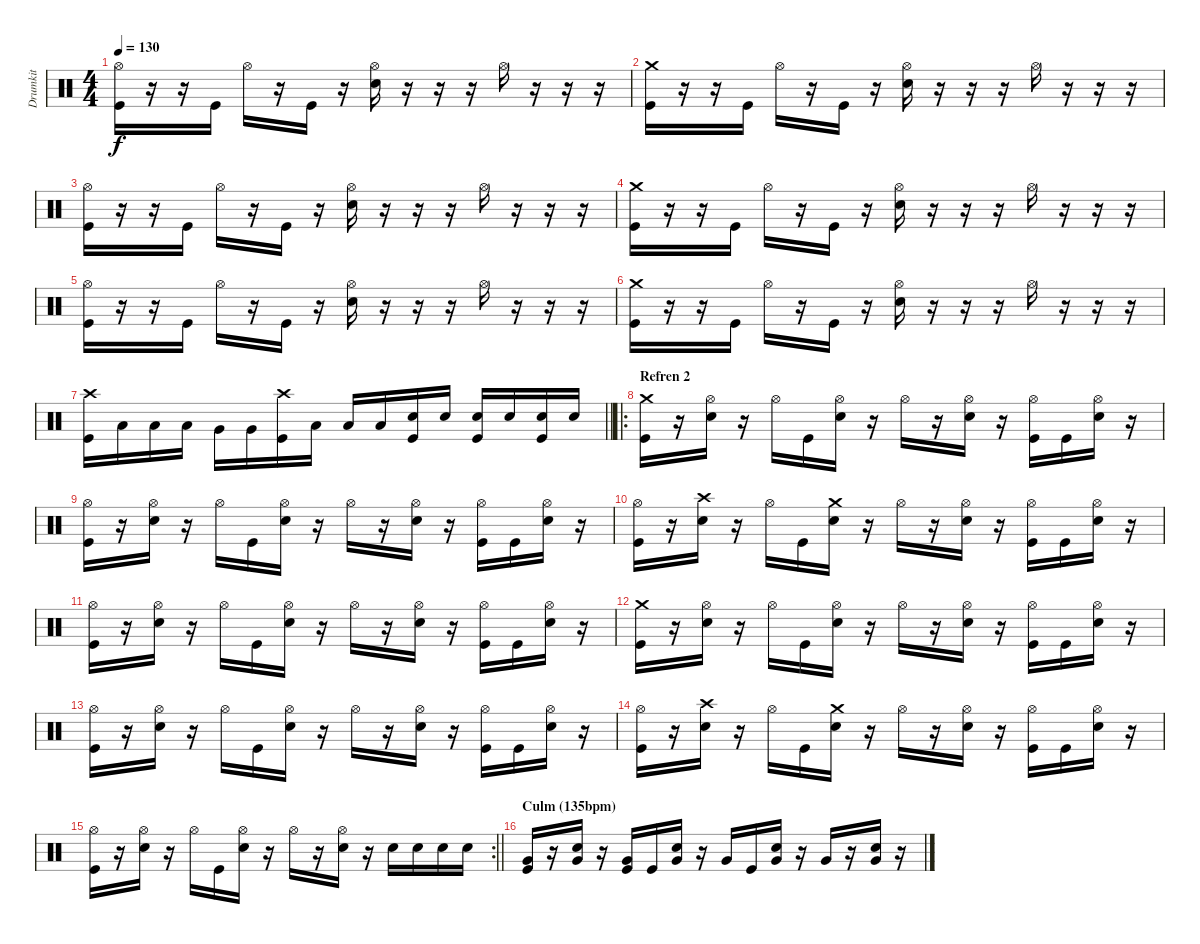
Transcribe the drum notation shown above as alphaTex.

\track ("Drumkit" "Drumkit") {instrument percussion}
\staff {score}
\articulation defaults
\ts (4 4)
\tempo 130
\clef neutral
\ks c
("Kick (hit)" "Hi-Hat (open)").16{dy f} r.16 r.16 "Kick (hit)".16 "Hi-Hat (open)".16 r.16 "Kick (hit)".16 r.16 ("Hi-Hat (open)" "Snare (hit) 2").16 r.16 r.16 r.16 "Hi-Hat (open)".16 r.16 r.16 r.16 |
("Crash medium (hit)" "Kick (hit)").16 r.16 r.16 "Kick (hit)".16 "Hi-Hat (open)".16 r.16 "Kick (hit)".16 r.16 ("Hi-Hat (open)" "Snare (hit) 2").16 r.16 r.16 r.16 "Hi-Hat (open)".16 r.16 r.16 r.16 |
("Kick (hit)" "Hi-Hat (open)").16 r.16 r.16 "Kick (hit)".16 "Hi-Hat (open)".16 r.16 "Kick (hit)".16 r.16 ("Hi-Hat (open)" "Snare (hit) 2").16 r.16 r.16 r.16 "Hi-Hat (open)".16 r.16 r.16 r.16 |
("Crash medium (hit)" "Kick (hit)").16 r.16 r.16 "Kick (hit)".16 "Hi-Hat (open)".16 r.16 "Kick (hit)".16 r.16 ("Hi-Hat (open)" "Snare (hit) 2").16 r.16 r.16 r.16 "Hi-Hat (open)".16 r.16 r.16 r.16 |
("Kick (hit)" "Hi-Hat (open)").16 r.16 r.16 "Kick (hit)".16 "Hi-Hat (open)".16 r.16 "Kick (hit)".16 r.16 ("Hi-Hat (open)" "Snare (hit) 2").16 r.16 r.16 r.16 "Hi-Hat (open)".16 r.16 r.16 r.16 |
("Crash medium (hit)" "Kick (hit)").16 r.16 r.16 "Kick (hit)".16 "Hi-Hat (open)".16 r.16 "Kick (hit)".16 r.16 ("Hi-Hat (open)" "Snare (hit) 2").16 r.16 r.16 r.16 "Hi-Hat (open)".16 r.16 r.16 r.16 |
\barLineRight lightlight
("Kick (hit)" "Crash high (hit)").16 "Low Tom (hit)".16 "Low Tom (hit)".16 "Low Tom (hit)".16 "Very Low Tom (hit)".16 "Very Low Tom (hit)".16 ("Kick (hit)" "Crash high (hit)").16 "Low Tom (hit)".16 "Low Tom (hit)".16 "Low Tom (hit)".16 ("Kick (hit)" "Snare (hit) 2").16 "Snare (hit) 2".16 ("Kick (hit)" "Snare (hit) 2").16 "Snare (hit) 2".16 ("Kick (hit)" "Snare (hit) 2").16 "Snare (hit) 2".16 |
\ro
\section ("" "Refren 2")
("Kick (hit)" "Crash medium (hit)").16 r.16 ("Hi-Hat (open)" "Snare (hit) 2").16 r.16 "Hi-Hat (open)".16 "Kick (hit)".16 ("Hi-Hat (open)" "Snare (hit) 2").16 r.16 "Hi-Hat (open)".16 r.16 ("Hi-Hat (open)" "Snare (hit) 2").16 r.16 ("Hi-Hat (open)" "Kick (hit)").16 "Kick (hit)".16 ("Hi-Hat (open)" "Snare (hit) 2").16 r.16 |
("Hi-Hat (open)" "Kick (hit)").16 r.16 ("Hi-Hat (open)" "Snare (hit) 2").16 r.16 "Hi-Hat (open)".16 "Kick (hit)".16 ("Hi-Hat (open)" "Snare (hit) 2").16 r.16 "Hi-Hat (open)".16 r.16 ("Snare (hit) 2" "Hi-Hat (open)").16 r.16 ("Hi-Hat (open)" "Kick (hit)").16 "Kick (hit)".16 ("Hi-Hat (open)" "Snare (hit) 2").16 r.16 |
("Hi-Hat (open)" "Kick (hit)").16 r.16 ("Snare (hit) 2" "Crash high (hit)").16 r.16 "Hi-Hat (open)".16 "Kick (hit)".16 ("Snare (hit) 2" "Crash medium (hit)").16 r.16 "Hi-Hat (open)".16 r.16 ("Hi-Hat (open)" "Snare (hit) 2").16 r.16 ("Hi-Hat (open)" "Kick (hit)").16 "Kick (hit)".16 ("Hi-Hat (open)" "Snare (hit) 2").16 r.16 |
("Hi-Hat (open)" "Kick (hit)").16 r.16 ("Hi-Hat (open)" "Snare (hit) 2").16 r.16 "Hi-Hat (open)".16 "Kick (hit)".16 ("Hi-Hat (open)" "Snare (hit) 2").16 r.16 "Hi-Hat (open)".16 r.16 ("Hi-Hat (open)" "Snare (hit) 2").16 r.16 ("Hi-Hat (open)" "Kick (hit)").16 "Kick (hit)".16 ("Hi-Hat (open)" "Snare (hit) 2").16 r.16 |
("Kick (hit)" "Crash medium (hit)").16 r.16 ("Hi-Hat (open)" "Snare (hit) 2").16 r.16 "Hi-Hat (open)".16 "Kick (hit)".16 ("Hi-Hat (open)" "Snare (hit) 2").16 r.16 "Hi-Hat (open)".16 r.16 ("Hi-Hat (open)" "Snare (hit) 2").16 r.16 ("Hi-Hat (open)" "Kick (hit)").16 "Kick (hit)".16 ("Hi-Hat (open)" "Snare (hit) 2").16 r.16 |
("Hi-Hat (open)" "Kick (hit)").16 r.16 ("Hi-Hat (open)" "Snare (hit) 2").16 r.16 "Hi-Hat (open)".16 "Kick (hit)".16 ("Hi-Hat (open)" "Snare (hit) 2").16 r.16 "Hi-Hat (open)".16 r.16 ("Snare (hit) 2" "Hi-Hat (open)").16 r.16 ("Hi-Hat (open)" "Kick (hit)").16 "Kick (hit)".16 ("Hi-Hat (open)" "Snare (hit) 2").16 r.16 |
("Hi-Hat (open)" "Kick (hit)").16 r.16 ("Snare (hit) 2" "Crash high (hit)").16 r.16 "Hi-Hat (open)".16 "Kick (hit)".16 ("Snare (hit) 2" "Crash medium (hit)").16 r.16 "Hi-Hat (open)".16 r.16 ("Hi-Hat (open)" "Snare (hit) 2").16 r.16 ("Hi-Hat (open)" "Kick (hit)").16 "Kick (hit)".16 ("Hi-Hat (open)" "Snare (hit) 2").16 r.16 |
\rc 2
\barLineRight lightlight
("Hi-Hat (open)" "Kick (hit)").16 r.16 ("Hi-Hat (open)" "Snare (hit) 2").16 r.16 "Hi-Hat (open)".16 "Kick (hit)".16 ("Hi-Hat (open)" "Snare (hit) 2").16 r.16 "Hi-Hat (open)".16 r.16 ("Hi-Hat (open)" "Snare (hit) 2").16 r.16 "Snare (hit) 2".16 "Snare (hit) 2".16 "Snare (hit) 2".16 "Snare (hit) 2".16 |
\section ("" "Culm (135bpm)")
("Kick (hit)" "Very Low Tom (hit)").16 r.16 ("Snare (hit) 2" "Very Low Tom (hit)").16 r.16 ("Kick (hit)" "Very Low Tom (hit)").16 "Kick (hit)".16 ("Snare (hit) 2" "Very Low Tom (hit)").16 r.16 "Very Low Tom (hit)".16 "Kick (hit)".16 ("Snare (hit) 2" "Very Low Tom (hit)").16 r.16 "Very Low Tom (hit)".16 r.16 ("Snare (hit) 2" "Very Low Tom (hit)").16 r.16
